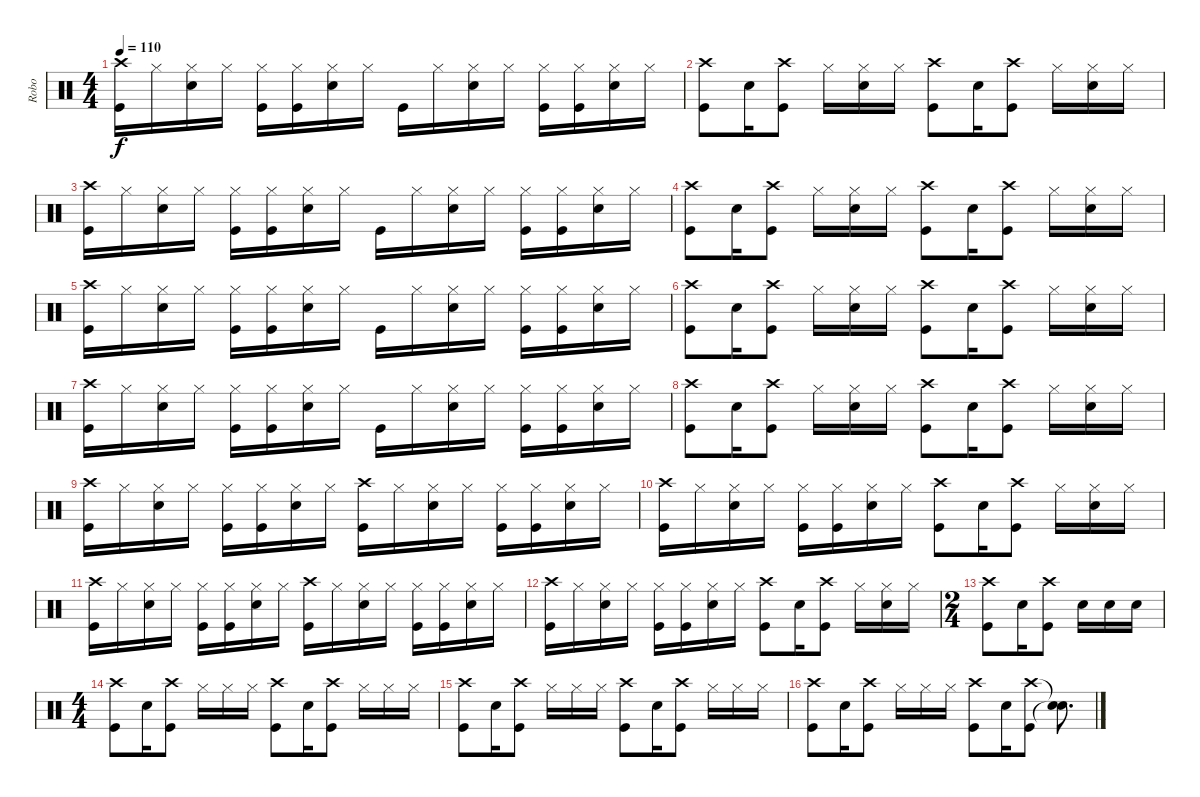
\track ("Robo" "Robo") {instrument percussion}
\staff {score}
\articulation defaults
\ts (4 4)
\tempo 110
\clef neutral
\ks c
("Crash high (hit)" "Kick (hit)").16{dy f} "Hi-Hat (closed)".16 ("Hi-Hat (closed)" "Snare (hit) 2").16 "Hi-Hat (closed)".16 ("Hi-Hat (closed)" "Kick (hit)").16 ("Hi-Hat (closed)" "Kick (hit)").16 ("Hi-Hat (closed)" "Snare (hit) 2").16 "Hi-Hat (closed)".16 "Kick (hit)".16 "Hi-Hat (closed)".16 ("Hi-Hat (closed)" "Snare (hit) 2").16 "Hi-Hat (closed)".16 ("Hi-Hat (closed)" "Kick (hit)").16 ("Hi-Hat (closed)" "Kick (hit)").16 ("Hi-Hat (closed)" "Snare (hit) 2").16 "Hi-Hat (closed)".16 |
("Crash high (hit)" "Kick (hit)").8 "Snare (hit) 2".16 ("Crash high (hit)" "Kick (hit)").8 "Hi-Hat (closed)".16 ("Hi-Hat (closed)" "Snare (hit) 2").16 "Hi-Hat (closed)".16 ("Crash high (hit)" "Kick (hit)").8 "Snare (hit) 2".16 ("Crash high (hit)" "Kick (hit)").8 "Hi-Hat (closed)".16 ("Hi-Hat (closed)" "Snare (hit) 2").16 "Hi-Hat (closed)".16 |
("Crash high (hit)" "Kick (hit)").16 "Hi-Hat (closed)".16 ("Hi-Hat (closed)" "Snare (hit) 2").16 "Hi-Hat (closed)".16 ("Hi-Hat (closed)" "Kick (hit)").16 ("Hi-Hat (closed)" "Kick (hit)").16 ("Hi-Hat (closed)" "Snare (hit) 2").16 "Hi-Hat (closed)".16 "Kick (hit)".16 "Hi-Hat (closed)".16 ("Hi-Hat (closed)" "Snare (hit) 2").16 "Hi-Hat (closed)".16 ("Hi-Hat (closed)" "Kick (hit)").16 ("Hi-Hat (closed)" "Kick (hit)").16 ("Hi-Hat (closed)" "Snare (hit) 2").16 "Hi-Hat (closed)".16 |
("Crash high (hit)" "Kick (hit)").8 "Snare (hit) 2".16 ("Crash high (hit)" "Kick (hit)").8 "Hi-Hat (closed)".16 ("Hi-Hat (closed)" "Snare (hit) 2").16 "Hi-Hat (closed)".16 ("Crash high (hit)" "Kick (hit)").8 "Snare (hit) 2".16 ("Crash high (hit)" "Kick (hit)").8 "Hi-Hat (closed)".16 ("Hi-Hat (closed)" "Snare (hit) 2").16 "Hi-Hat (closed)".16 |
("Crash high (hit)" "Kick (hit)").16 "Hi-Hat (closed)".16 ("Hi-Hat (closed)" "Snare (hit) 2").16 "Hi-Hat (closed)".16 ("Hi-Hat (closed)" "Kick (hit)").16 ("Hi-Hat (closed)" "Kick (hit)").16 ("Hi-Hat (closed)" "Snare (hit) 2").16 "Hi-Hat (closed)".16 "Kick (hit)".16 "Hi-Hat (closed)".16 ("Hi-Hat (closed)" "Snare (hit) 2").16 "Hi-Hat (closed)".16 ("Hi-Hat (closed)" "Kick (hit)").16 ("Hi-Hat (closed)" "Kick (hit)").16 ("Hi-Hat (closed)" "Snare (hit) 2").16 "Hi-Hat (closed)".16 |
("Crash high (hit)" "Kick (hit)").8 "Snare (hit) 2".16 ("Crash high (hit)" "Kick (hit)").8 "Hi-Hat (closed)".16 ("Hi-Hat (closed)" "Snare (hit) 2").16 "Hi-Hat (closed)".16 ("Crash high (hit)" "Kick (hit)").8 "Snare (hit) 2".16 ("Crash high (hit)" "Kick (hit)").8 "Hi-Hat (closed)".16 ("Hi-Hat (closed)" "Snare (hit) 2").16 "Hi-Hat (closed)".16 |
("Crash high (hit)" "Kick (hit)").16 "Hi-Hat (closed)".16 ("Hi-Hat (closed)" "Snare (hit) 2").16 "Hi-Hat (closed)".16 ("Hi-Hat (closed)" "Kick (hit)").16 ("Hi-Hat (closed)" "Kick (hit)").16 ("Hi-Hat (closed)" "Snare (hit) 2").16 "Hi-Hat (closed)".16 "Kick (hit)".16 "Hi-Hat (closed)".16 ("Hi-Hat (closed)" "Snare (hit) 2").16 "Hi-Hat (closed)".16 ("Hi-Hat (closed)" "Kick (hit)").16 ("Hi-Hat (closed)" "Kick (hit)").16 ("Hi-Hat (closed)" "Snare (hit) 2").16 "Hi-Hat (closed)".16 |
("Crash high (hit)" "Kick (hit)").8 "Snare (hit) 2".16 ("Crash high (hit)" "Kick (hit)").8 "Hi-Hat (closed)".16 ("Hi-Hat (closed)" "Snare (hit) 2").16 "Hi-Hat (closed)".16 ("Crash high (hit)" "Kick (hit)").8 "Snare (hit) 2".16 ("Crash high (hit)" "Kick (hit)").8 "Hi-Hat (closed)".16 ("Hi-Hat (closed)" "Snare (hit) 2").16 "Hi-Hat (closed)".16 |
("Crash high (hit)" "Kick (hit)").16 "Hi-Hat (closed)".16 ("Hi-Hat (closed)" "Snare (hit) 2").16 "Hi-Hat (closed)".16 ("Hi-Hat (closed)" "Kick (hit)").16 ("Hi-Hat (closed)" "Kick (hit)").16 ("Hi-Hat (closed)" "Snare (hit) 2").16 "Hi-Hat (closed)".16 ("Crash high (hit)" "Kick (hit)").16 "Hi-Hat (closed)".16 ("Hi-Hat (closed)" "Snare (hit) 2").16 "Hi-Hat (closed)".16 ("Hi-Hat (closed)" "Kick (hit)").16 ("Hi-Hat (closed)" "Kick (hit)").16 ("Hi-Hat (closed)" "Snare (hit) 2").16 "Hi-Hat (closed)".16 |
("Crash high (hit)" "Kick (hit)").16 "Hi-Hat (closed)".16 ("Hi-Hat (closed)" "Snare (hit) 2").16 "Hi-Hat (closed)".16 ("Hi-Hat (closed)" "Kick (hit)").16 ("Hi-Hat (closed)" "Kick (hit)").16 ("Hi-Hat (closed)" "Snare (hit) 2").16 "Hi-Hat (closed)".16 ("Crash high (hit)" "Kick (hit)").8 "Snare (hit) 2".16 ("Crash high (hit)" "Kick (hit)").8 "Hi-Hat (closed)".16 ("Hi-Hat (closed)" "Snare (hit) 2").16 "Hi-Hat (closed)".16 |
("Crash high (hit)" "Kick (hit)").16 "Hi-Hat (closed)".16 ("Hi-Hat (closed)" "Snare (hit) 2").16 "Hi-Hat (closed)".16 ("Hi-Hat (closed)" "Kick (hit)").16 ("Hi-Hat (closed)" "Kick (hit)").16 ("Hi-Hat (closed)" "Snare (hit) 2").16 "Hi-Hat (closed)".16 ("Crash high (hit)" "Kick (hit)").16 "Hi-Hat (closed)".16 ("Hi-Hat (closed)" "Snare (hit) 2").16 "Hi-Hat (closed)".16 ("Hi-Hat (closed)" "Kick (hit)").16 ("Hi-Hat (closed)" "Kick (hit)").16 ("Hi-Hat (closed)" "Snare (hit) 2").16 "Hi-Hat (closed)".16 |
("Crash high (hit)" "Kick (hit)").16 "Hi-Hat (closed)".16 ("Hi-Hat (closed)" "Snare (hit) 2").16 "Hi-Hat (closed)".16 ("Hi-Hat (closed)" "Kick (hit)").16 ("Hi-Hat (closed)" "Kick (hit)").16 ("Hi-Hat (closed)" "Snare (hit) 2").16 "Hi-Hat (closed)".16 ("Crash high (hit)" "Kick (hit)").8 "Snare (hit) 2".16 ("Crash high (hit)" "Kick (hit)").8 "Hi-Hat (closed)".16 ("Hi-Hat (closed)" "Snare (hit) 2").16 "Hi-Hat (closed)".16 |
\ts (2 4)
("Crash high (hit)" "Kick (hit)").8 "Snare (hit) 2".16 ("Crash high (hit)" "Kick (hit)").8 "Snare (hit) 2".16 "Snare (hit) 2".16 "Snare (hit) 2".16 |
\ts (4 4)
("Crash high (hit)" "Kick (hit)").8 "Snare (hit) 2".16 ("Crash high (hit)" "Kick (hit)").8 "Hi-Hat (closed)".16 "Hi-Hat (closed)".16 "Hi-Hat (closed)".16 ("Crash high (hit)" "Kick (hit)").8 "Snare (hit) 2".16 ("Crash high (hit)" "Kick (hit)").8 "Hi-Hat (closed)".16 "Hi-Hat (closed)".16 "Hi-Hat (closed)".16 |
("Crash high (hit)" "Kick (hit)").8 "Snare (hit) 2".16 ("Crash high (hit)" "Kick (hit)").8 "Hi-Hat (closed)".16 "Hi-Hat (closed)".16 "Hi-Hat (closed)".16 ("Crash high (hit)" "Kick (hit)").8 "Snare (hit) 2".16 ("Crash high (hit)" "Kick (hit)").8 "Hi-Hat (closed)".16 "Hi-Hat (closed)".16 "Hi-Hat (closed)".16 |
("Crash high (hit)" "Kick (hit)").8 "Snare (hit) 2".16 ("Crash high (hit)" "Kick (hit)").8 "Hi-Hat (closed)".16 "Hi-Hat (closed)".16 "Hi-Hat (closed)".16 ("Crash high (hit)" "Kick (hit)").8 "Snare (hit) 2".16 ("Crash high (hit)" "Kick (hit)").8 ("Snare (hit)"{t} "Snare (hit)"{t}).8{d}
